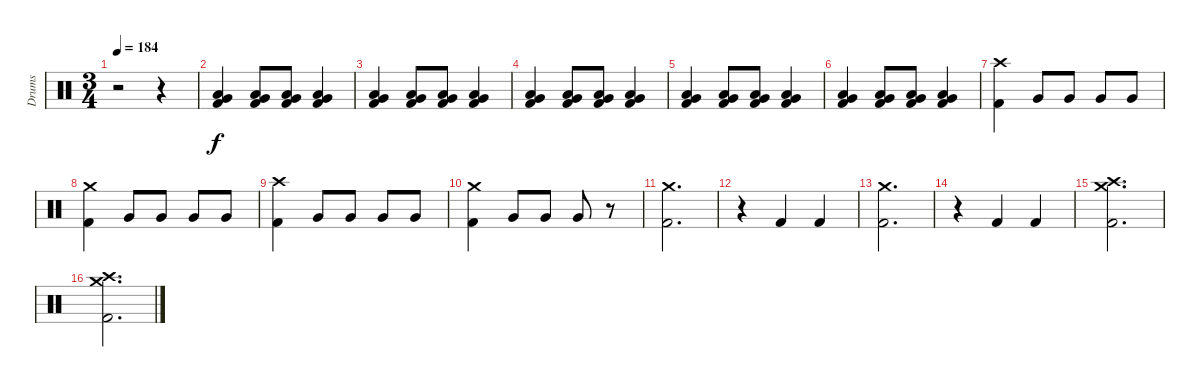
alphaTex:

\track ("Drums" "Drums") {instrument percussion}
\staff {score}
\articulation defaults
\ts (3 4)
\tempo 184
\clef neutral
\ks c
r.2{dy f} r.4 |
("Very Low Tom (hit)" "Low Floor Tom (hit)" "Kick (hit) 2").4 ("Very Low Tom (hit)" "Low Floor Tom (hit)" "Kick (hit) 2").8 ("Very Low Tom (hit)" "Low Floor Tom (hit)" "Kick (hit) 2").8 ("Very Low Tom (hit)" "Low Floor Tom (hit)" "Kick (hit) 2").4 |
("Very Low Tom (hit)" "Low Floor Tom (hit)" "Kick (hit) 2").4 ("Very Low Tom (hit)" "Low Floor Tom (hit)" "Kick (hit) 2").8 ("Very Low Tom (hit)" "Low Floor Tom (hit)" "Kick (hit) 2").8 ("Very Low Tom (hit)" "Low Floor Tom (hit)" "Kick (hit) 2").4 |
("Very Low Tom (hit)" "Low Floor Tom (hit)" "Kick (hit) 2").4 ("Very Low Tom (hit)" "Low Floor Tom (hit)" "Kick (hit) 2").8 ("Very Low Tom (hit)" "Low Floor Tom (hit)" "Kick (hit) 2").8 ("Very Low Tom (hit)" "Low Floor Tom (hit)" "Kick (hit) 2").4 |
("Very Low Tom (hit)" "Low Floor Tom (hit)" "Kick (hit) 2").4 ("Very Low Tom (hit)" "Low Floor Tom (hit)" "Kick (hit) 2").8 ("Very Low Tom (hit)" "Low Floor Tom (hit)" "Kick (hit) 2").8 ("Very Low Tom (hit)" "Low Floor Tom (hit)" "Kick (hit) 2").4 |
("Very Low Tom (hit)" "Low Floor Tom (hit)" "Kick (hit) 2").4 ("Very Low Tom (hit)" "Low Floor Tom (hit)" "Kick (hit) 2").8 ("Very Low Tom (hit)" "Low Floor Tom (hit)" "Kick (hit) 2").8 ("Very Low Tom (hit)" "Low Floor Tom (hit)" "Kick (hit) 2").4 |
("Crash high (hit)" "Kick (hit) 2").4 "Very Low Tom (hit)".8 "Very Low Tom (hit)".8 "Very Low Tom (hit)".8 "Very Low Tom (hit)".8 |
("Crash medium (hit)" "Kick (hit) 2").4 "Very Low Tom (hit)".8 "Very Low Tom (hit)".8 "Very Low Tom (hit)".8 "Very Low Tom (hit)".8 |
("Crash high (hit)" "Kick (hit) 2").4 "Very Low Tom (hit)".8 "Very Low Tom (hit)".8 "Very Low Tom (hit)".8 "Very Low Tom (hit)".8 |
("Crash medium (hit)" "Kick (hit) 2").4 "Very Low Tom (hit)".8 "Very Low Tom (hit)".8 "Very Low Tom (hit)".8 r.8 |
("Crash medium (hit)" "Kick (hit) 2").2{d} |
r.4 "Kick (hit) 2".4 "Kick (hit) 2".4 |
("Crash medium (hit)" "Kick (hit) 2").2{d} |
r.4 "Kick (hit) 2".4 "Kick (hit) 2".4 |
("Crash medium (hit)" "Crash high (hit)" "Kick (hit) 2").2{d} |
("Crash medium (hit)" "Crash high (hit)" "Kick (hit) 2").2{d}
